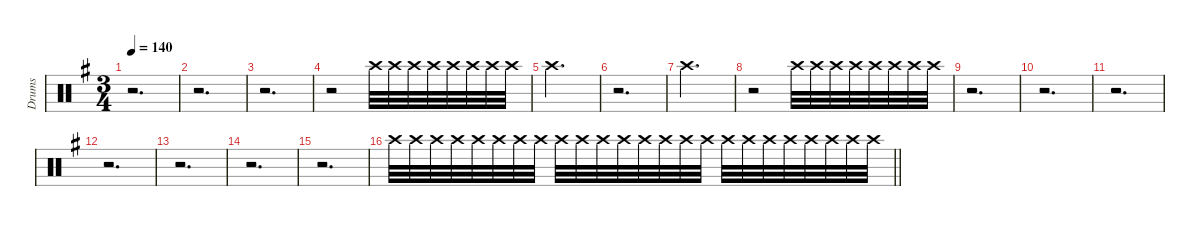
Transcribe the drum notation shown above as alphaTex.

\defaultSystemsLayout 8
\hideDynamics
\bracketExtendMode groupsimilarinstruments
\firstSystemTrackNameMode fullname
\otherSystemsTrackNameOrientation horizontal
\track ("Drums" "drm.") {defaultSystemsLayout 4 instrument percussion}
\staff {score}
\articulation defaults
\ts (3 4)
\tempo 140
\clef neutral
\ks g
r.2{d dy ff beam Down} |
r.2{d beam Down} |
r.2{d beam Down} |
r.2{beam Down} "Crash high (hit)"{acc forcenatural}.32{dy pp beam Down} "Crash high (hit)"{acc forcenatural}.32{beam Down} "Crash high (hit)"{acc forcenatural}.32{dy p beam Down} "Crash high (hit)"{acc forcenatural}.32{beam Down} "Crash high (hit)"{acc forcenatural}.32{dy mp beam Down} "Crash high (hit)"{acc forcenatural}.32{beam Down} "Crash high (hit)"{acc forcenatural}.32{dy mf beam Down} "Crash high (hit)"{acc forcenatural}.32{beam Down} |
"Crash high (hit)"{acc forcenatural}.2{d dy ff beam Down} |
r.2{d beam Down} |
"Crash high (hit)"{acc forcenatural}.2{d beam Down} |
r.2{beam Down} "Crash high (hit)"{acc forcenatural}.32{dy pp beam Down} "Crash high (hit)"{acc forcenatural}.32{beam Down} "Crash high (hit)"{acc forcenatural}.32{dy p beam Down} "Crash high (hit)"{acc forcenatural}.32{beam Down} "Crash high (hit)"{acc forcenatural}.32{dy mp beam Down} "Crash high (hit)"{acc forcenatural}.32{beam Down} "Crash high (hit)"{acc forcenatural}.32{dy mf beam Down} "Crash high (hit)"{acc forcenatural}.32{beam Down} |
r.2{d beam Down} |
r.2{d beam Down} |
r.2{d beam Down} |
r.2{d beam Down} |
r.2{d beam Down} |
r.2{d beam Down} |
r.2{d beam Down} |
\barLineRight lightlight "Crash high (hit)"{acc forcenatural}.32{dy ppp beam Down} "Crash high (hit)"{acc forcenatural}.32{beam Down} "Crash high (hit)"{acc forcenatural}.32{beam Down} "Crash high (hit)"{acc forcenatural}.32{beam Down} "Crash high (hit)"{acc forcenatural}.32{dy pp beam Down} "Crash high (hit)"{acc forcenatural}.32{beam Down} "Crash high (hit)"{acc forcenatural}.32{beam Down} "Crash high (hit)"{acc forcenatural}.32{beam Down} "Crash high (hit)"{acc forcenatural}.32{dy p beam Down} "Crash high (hit)"{acc forcenatural}.32{beam Down} "Crash high (hit)"{acc forcenatural}.32{beam Down} "Crash high (hit)"{acc forcenatural}.32{beam Down} "Crash high (hit)"{acc forcenatural}.32{dy mp beam Down} "Crash high (hit)"{acc forcenatural}.32{beam Down} "Crash high (hit)"{acc forcenatural}.32{beam Down} "Crash high (hit)"{acc forcenatural}.32{beam Down} "Crash high (hit)"{acc forcenatural}.32{dy mf beam Down} "Crash high (hit)"{acc forcenatural}.32{beam Down} "Crash high (hit)"{acc forcenatural}.32{beam Down} "Crash high (hit)"{acc forcenatural}.32{beam Down} "Crash high (hit)"{acc forcenatural}.32{dy f beam Down} "Crash high (hit)"{acc forcenatural}.32{beam Down} "Crash high (hit)"{acc forcenatural}.32{beam Down} "Crash high (hit)"{acc forcenatural}.32{beam Down}
